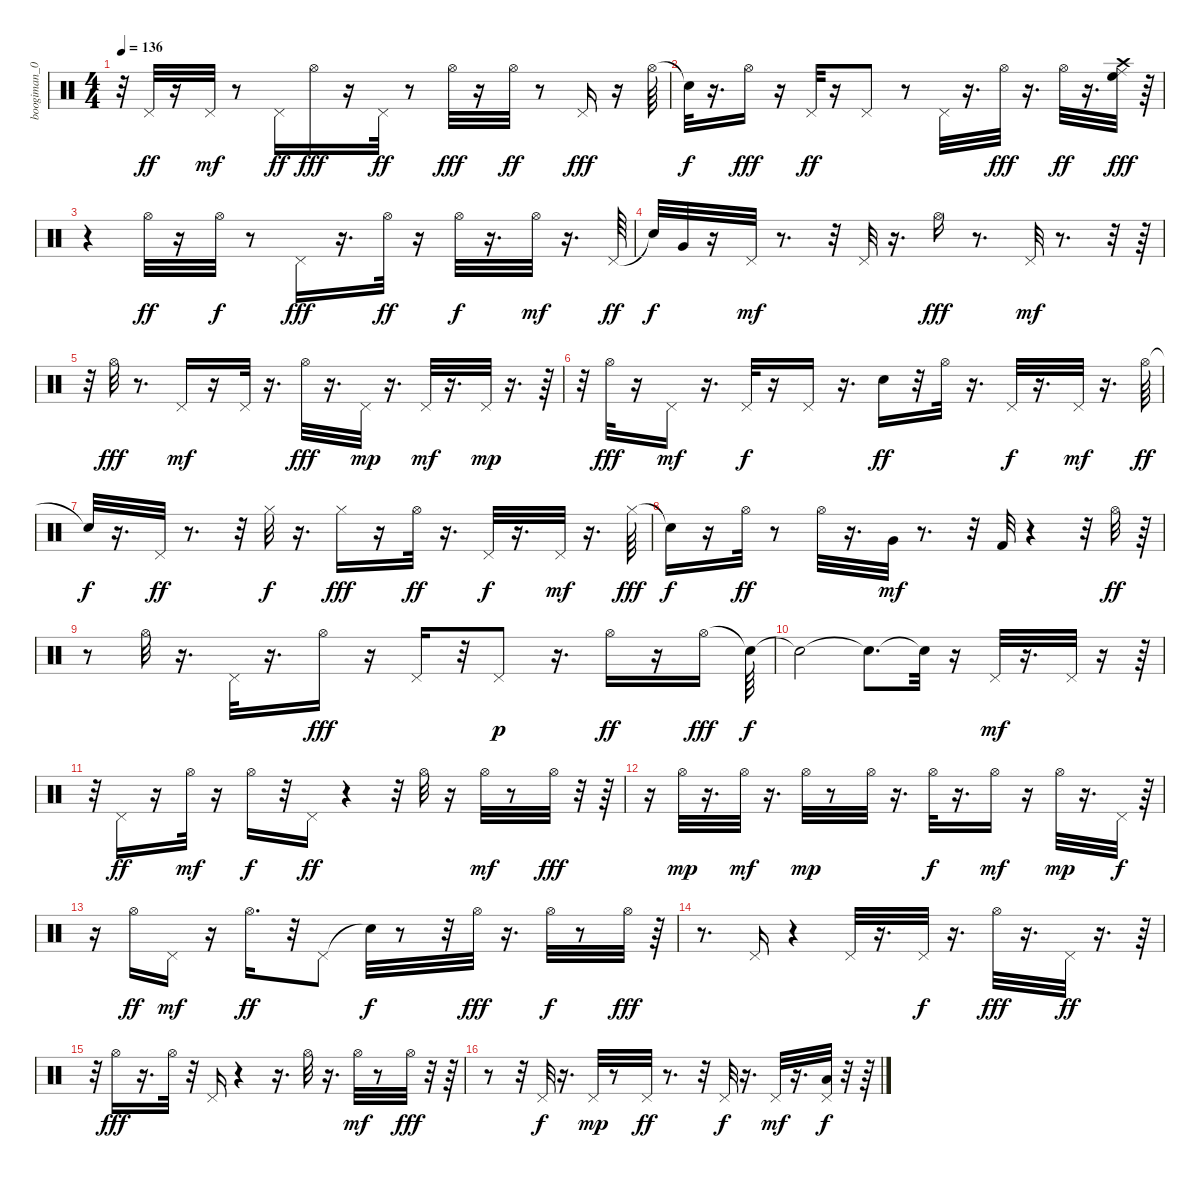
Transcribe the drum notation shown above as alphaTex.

\track ("boogiman_007@yahoo.com" "boogiman_0") {instrument percussion}
\staff {score}
\articulation defaults
\ts (4 4)
\tempo 136
\clef neutral
\ks c
r.32{dy fff} "Pedal Hi-Hat (hit)".32{dy ff} r.16 "Pedal Hi-Hat (hit)".32{dy mf} r.8 "Pedal Hi-Hat (hit)".16{dy ff} "Hi-Hat (open)".16{dy fff} r.16 "Pedal Hi-Hat (hit)".32{dy ff} r.8 "Hi-Hat (open)".32{dy fff} r.16 "Hi-Hat (open)".32{dy ff} r.8 "Pedal Hi-Hat (hit)".16{dy fff} r.16 "Hi-Hat (open)".64 |
"Snare (hit)"{t}.32{dy f} r.16{d} "Hi-Hat (open)".16{dy fff} r.16 "Pedal Hi-Hat (hit)".32{dy ff} r.16 "Pedal Hi-Hat (hit)".8 r.8 "Pedal Hi-Hat (hit)".32 r.16{d} "Hi-Hat (open)".32{dy fff} r.16{d} "Hi-Hat (open)".32{dy ff} r.16{d} ("Crash high (hit)" "Ride (middle)" "High Floor Tom (hit)").32{dy fff} r.64 |
r.4 "Hi-Hat (open)".32{dy ff} r.16 "Hi-Hat (open)".32{dy f} r.8 "Pedal Hi-Hat (hit)".16{dy fff} r.16{d} "Hi-Hat (open)".32{dy ff} r.16 "Hi-Hat (open)".32{dy f} r.16{d} "Hi-Hat (open)".32{dy mf} r.16{d} "Pedal Hi-Hat (hit)".64{dy ff} |
"Snare (hit)"{t}.32{dy f} "Very Low Tom (hit)".32 r.16 "Pedal Hi-Hat (hit)".32{dy mf} r.8{d} r.32 "Pedal Hi-Hat (hit)".32 r.16{d} "Hi-Hat (open)".16{dy fff} r.8{d} "Pedal Hi-Hat (hit)".32{dy mf} r.8{d} r.32 r.64 |
r.32 "Hi-Hat (open)".32{dy fff} r.8{d} "Pedal Hi-Hat (hit)".16{dy mf} r.16 "Pedal Hi-Hat (hit)".32 r.16{d} "Hi-Hat (open)".32{dy fff} r.16{d} "Pedal Hi-Hat (hit)".32{dy mp} r.16{d} "Pedal Hi-Hat (hit)".32{dy mf} r.16{d} "Pedal Hi-Hat (hit)".32{dy mp} r.16{d} r.64 |
r.32 "Hi-Hat (open)".32{dy fff} r.16 "Pedal Hi-Hat (hit)".16{dy mf} r.16{d} "Pedal Hi-Hat (hit)".32{dy f} r.16 "Pedal Hi-Hat (hit)".16 r.16{d} "Hand Clap (hit)".16{dy ff} r.32 "Hi-Hat (open)".32 r.16{d} "Pedal Hi-Hat (hit)".32{dy f} r.16{d} "Pedal Hi-Hat (hit)".32{dy mf} r.16{d} "Hi-Hat (open)".64{dy ff} |
"Snare (hit)"{t}.32{dy f} r.16{d} "Pedal Hi-Hat (hit)".32{dy ff} r.8{d} r.32 "Hi-Hat (closed)".32{dy f} r.16{d} "Hi-Hat (closed)".16{dy fff} r.16 "Hi-Hat (open)".32{dy ff} r.16{d} "Pedal Hi-Hat (hit)".32{dy f} r.16{d} "Pedal Hi-Hat (hit)".32{dy mf} r.16{d} "Hi-Hat (closed)".64{dy fff} |
"Snare (hit)"{t}.16{dy f} r.16 "Hi-Hat (open)".32{dy ff} r.8 "Hi-Hat (open)".32 r.16{d} "Very Low Tom (hit)".32{dy mf} r.8{d} r.32 "Kick (hit) 2".32 r.4 r.32 "Hi-Hat (open)".32{dy ff} r.64 |
r.8 "Hi-Hat (open)".32 r.16{d} "Pedal Hi-Hat (hit)".32 r.16{d} "Hi-Hat (open)".16{dy fff} r.16 "Pedal Hi-Hat (hit)".16 r.32 "Pedal Hi-Hat (hit)".8{dy p} r.16{d} "Hi-Hat (open)".16{dy ff} r.16 "Hi-Hat (open)".16{dy fff} "Snare (hit)"{t}.64{dy f} |
"Snare (hit)"{t}.2 "Snare (hit)"{t}.8{d} "Snare (hit)"{t}.32 r.16 "Pedal Hi-Hat (hit)".32{dy mf} r.16{d} "Pedal Hi-Hat (hit)".32 r.16 r.64 |
r.32 "Pedal Hi-Hat (hit)".16{dy ff} r.16 "Hi-Hat (open)".32{dy mf} r.16 "Hi-Hat (open)".16{dy f} r.32 "Pedal Hi-Hat (hit)".16{dy ff} r.4 r.32 "Hi-Hat (open)".32 r.16 "Hi-Hat (open)".32{dy mf} r.8 "Hi-Hat (open)".32{dy fff} r.32 r.64 |
r.16 "Hi-Hat (open)".32{dy mp} r.16{d} "Hi-Hat (open)".32{dy mf} r.16{d} "Hi-Hat (open)".32{dy mp} r.8 "Hi-Hat (open)".32 r.16{d} "Hi-Hat (open)".32{dy f} r.16{d} "Hi-Hat (open)".16{dy mf} r.16 "Hi-Hat (open)".32{dy mp} r.16{d} "Pedal Hi-Hat (hit)".32{dy f} r.64 |
r.16 "Hi-Hat (open)".16{dy ff} "Pedal Hi-Hat (hit)".16{dy mf} r.16 "Hi-Hat (open)".16{d dy ff} r.32 "Pedal Hi-Hat (hit)".8 "Snare (hit)"{t}.32{dy f} r.8 r.32 "Hi-Hat (open)".32{dy fff} r.16{d} "Hi-Hat (open)".32{dy f} r.8 "Hi-Hat (open)".32{dy fff} r.64 |
r.8{d} "Pedal Hi-Hat (hit)".16 r.4 "Pedal Hi-Hat (hit)".32 r.16{d} "Pedal Hi-Hat (hit)".32{dy f} r.16{d} "Hi-Hat (open)".32{dy fff} r.16{d} "Pedal Hi-Hat (hit)".32{dy ff} r.16{d} r.64 |
r.32 "Hi-Hat (open)".16{dy fff} r.16{d} "Hi-Hat (open)".32 r.32 "Pedal Hi-Hat (hit)".16 r.4 r.16{d} "Hi-Hat (open)".32 r.16{d} "Hi-Hat (open)".32{dy mf} r.8 "Hi-Hat (open)".32{dy fff} r.32 r.64 |
r.8 r.32 "Pedal Hi-Hat (hit)".32{dy f} r.16{d} "Pedal Hi-Hat (hit)".32{dy mp} r.8 "Pedal Hi-Hat (hit)".32{dy ff} r.8{d} r.32 "Pedal Hi-Hat (hit)".32{dy f} r.16{d} "Pedal Hi-Hat (hit)".32{dy mf} r.16{d} ("Pedal Hi-Hat (hit)" "Low Tom (hit)").32{dy f} r.32 r.64
